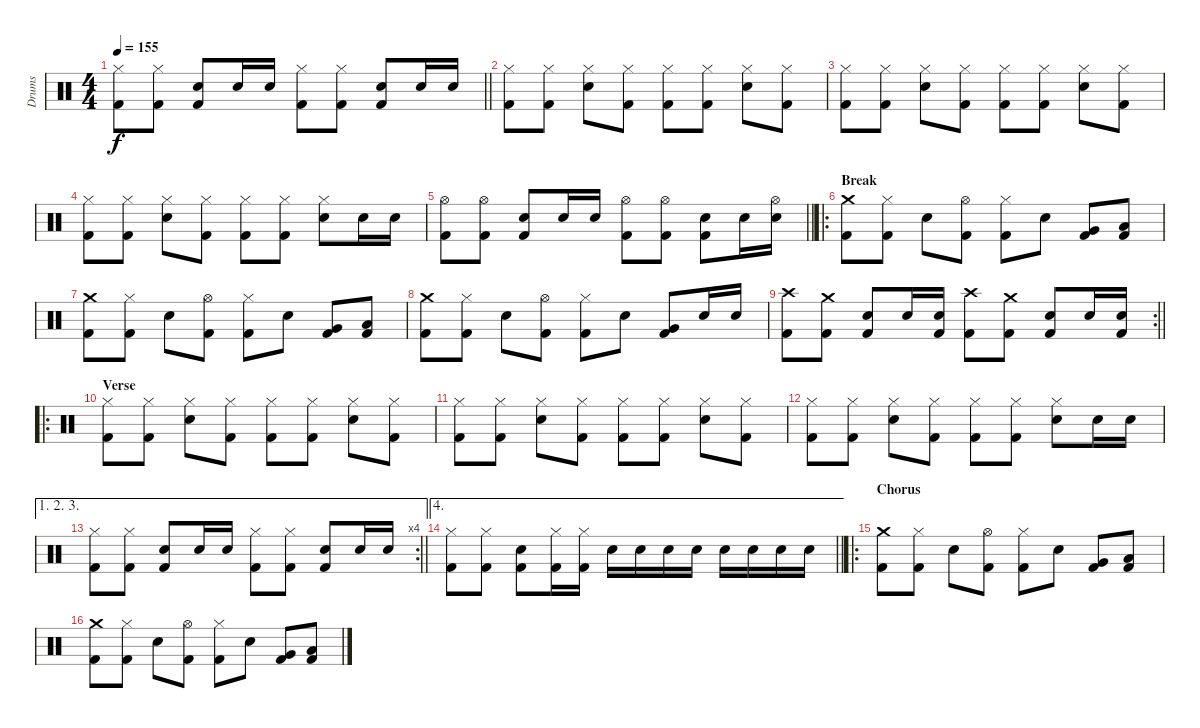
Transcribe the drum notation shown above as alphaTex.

\track ("Drums" "Drums") {instrument percussion}
\staff {score}
\articulation defaults
\ts (4 4)
\tempo 155
\clef neutral
\barLineRight lightlight
\ks c
("Hi-Hat (closed)" "Kick (hit) 2").8{dy f} ("Hi-Hat (closed)" "Kick (hit) 2").8 ("Snare (hit) 2" "Kick (hit) 2").8 "Snare (hit) 2".16 "Snare (hit) 2".16 ("Hi-Hat (closed)" "Kick (hit) 2").8 ("Hi-Hat (closed)" "Kick (hit) 2").8 ("Snare (hit) 2" "Kick (hit) 2").8 "Snare (hit) 2".16 "Snare (hit) 2".16 |
("Hi-Hat (closed)" "Kick (hit) 2").8 ("Hi-Hat (closed)" "Kick (hit) 2").8 ("Hi-Hat (closed)" "Snare (hit) 2").8 ("Hi-Hat (closed)" "Kick (hit) 2").8 ("Hi-Hat (closed)" "Kick (hit) 2").8 ("Hi-Hat (closed)" "Kick (hit) 2").8 ("Hi-Hat (closed)" "Snare (hit) 2").8 ("Hi-Hat (closed)" "Kick (hit) 2").8 |
("Hi-Hat (closed)" "Kick (hit) 2").8 ("Hi-Hat (closed)" "Kick (hit) 2").8 ("Hi-Hat (closed)" "Snare (hit) 2").8 ("Hi-Hat (closed)" "Kick (hit) 2").8 ("Hi-Hat (closed)" "Kick (hit) 2").8 ("Hi-Hat (closed)" "Kick (hit) 2").8 ("Hi-Hat (closed)" "Snare (hit) 2").8 ("Hi-Hat (closed)" "Kick (hit) 2").8 |
("Hi-Hat (closed)" "Kick (hit) 2").8 ("Hi-Hat (closed)" "Kick (hit) 2").8 ("Hi-Hat (closed)" "Snare (hit) 2").8 ("Hi-Hat (closed)" "Kick (hit) 2").8 ("Hi-Hat (closed)" "Kick (hit) 2").8 ("Hi-Hat (closed)" "Kick (hit) 2").8 ("Hi-Hat (closed)" "Snare (hit) 2").8 "Snare (hit) 2".16 "Snare (hit) 2".16 |
\barLineRight lightlight
("Hi-Hat (open)" "Kick (hit) 2").8 ("Hi-Hat (open)" "Kick (hit) 2").8 ("Snare (hit) 2" "Kick (hit) 2").8 "Snare (hit) 2".16 "Snare (hit) 2".16 ("Hi-Hat (open)" "Kick (hit) 2").8 ("Hi-Hat (open)" "Kick (hit) 2").8 ("Snare (hit) 2" "Kick (hit) 2").8 "Snare (hit) 2".16 ("Hi-Hat (open)" "Snare (hit) 2").16 |
\ro
\section ("" "Break")
("Crash medium (hit)" "Kick (hit) 2").8 ("Hi-Hat (closed)" "Kick (hit) 2").8 "Snare (hit) 2".8 ("Hi-Hat (open)" "Kick (hit) 2").8 ("Hi-Hat (closed)" "Kick (hit) 2").8 "Snare (hit) 2".8 ("Very Low Tom (hit)" "Kick (hit) 2").8 ("Low Floor Tom (hit)" "Kick (hit) 2").8 |
("Crash medium (hit)" "Kick (hit) 2").8 ("Hi-Hat (closed)" "Kick (hit) 2").8 "Snare (hit) 2".8 ("Hi-Hat (open)" "Kick (hit) 2").8 ("Hi-Hat (closed)" "Kick (hit) 2").8 "Snare (hit) 2".8 ("Very Low Tom (hit)" "Kick (hit) 2").8 ("Low Floor Tom (hit)" "Kick (hit) 2").8 |
("Crash medium (hit)" "Kick (hit) 2").8 ("Hi-Hat (closed)" "Kick (hit) 2").8 "Snare (hit) 2".8 ("Hi-Hat (open)" "Kick (hit) 2").8 ("Hi-Hat (closed)" "Kick (hit) 2").8 "Snare (hit) 2".8 ("Very Low Tom (hit)" "Kick (hit) 2").8 "Snare (hit) 2".16 "Snare (hit) 2".16 |
\rc 2
\barLineRight lightlight
("Crash high (hit)" "Kick (hit) 2").8 ("Crash medium (hit)" "Kick (hit) 2").8 ("Snare (hit) 2" "Kick (hit) 2").8 "Snare (hit) 2".16 ("Snare (hit) 2" "Kick (hit) 2").16 ("Crash high (hit)" "Kick (hit) 2").8 ("Crash medium (hit)" "Kick (hit) 2").8 ("Snare (hit) 2" "Kick (hit) 2").8 "Snare (hit) 2".16 ("Snare (hit) 2" "Kick (hit) 2").16 |
\ro
\section ("" "Verse")
("Hi-Hat (closed)" "Kick (hit) 2").8 ("Hi-Hat (closed)" "Kick (hit) 2").8 ("Hi-Hat (closed)" "Snare (hit) 2").8 ("Hi-Hat (closed)" "Kick (hit) 2").8 ("Hi-Hat (closed)" "Kick (hit) 2").8 ("Hi-Hat (closed)" "Kick (hit) 2").8 ("Hi-Hat (closed)" "Snare (hit) 2").8 ("Hi-Hat (closed)" "Kick (hit) 2").8 |
("Hi-Hat (closed)" "Kick (hit) 2").8 ("Hi-Hat (closed)" "Kick (hit) 2").8 ("Hi-Hat (closed)" "Snare (hit) 2").8 ("Hi-Hat (closed)" "Kick (hit) 2").8 ("Hi-Hat (closed)" "Kick (hit) 2").8 ("Hi-Hat (closed)" "Kick (hit) 2").8 ("Hi-Hat (closed)" "Snare (hit) 2").8 ("Hi-Hat (closed)" "Kick (hit) 2").8 |
("Hi-Hat (closed)" "Kick (hit) 2").8 ("Hi-Hat (closed)" "Kick (hit) 2").8 ("Hi-Hat (closed)" "Snare (hit) 2").8 ("Hi-Hat (closed)" "Kick (hit) 2").8 ("Hi-Hat (closed)" "Kick (hit) 2").8 ("Hi-Hat (closed)" "Kick (hit) 2").8 ("Hi-Hat (closed)" "Snare (hit) 2").8 "Snare (hit) 2".16 "Snare (hit) 2".16 |
\ae (1 2 3)
\rc 4
\barLineRight lightlight
("Hi-Hat (closed)" "Kick (hit) 2").8 ("Hi-Hat (closed)" "Kick (hit) 2").8 ("Snare (hit) 2" "Kick (hit) 2").8 "Snare (hit) 2".16 "Snare (hit) 2".16 ("Hi-Hat (closed)" "Kick (hit) 2").8 ("Hi-Hat (closed)" "Kick (hit) 2").8 ("Snare (hit) 2" "Kick (hit) 2").8 "Snare (hit) 2".16 "Snare (hit) 2".16 |
\ae 4
\barLineRight lightlight
("Hi-Hat (closed)" "Kick (hit) 2").8 ("Hi-Hat (closed)" "Kick (hit) 2").8 ("Snare (hit) 2" "Kick (hit) 2").8 ("Hi-Hat (closed)" "Kick (hit) 2").16 ("Hi-Hat (closed)" "Kick (hit) 2").16 "Snare (hit) 2".16 "Snare (hit) 2".16 "Snare (hit) 2".16 "Snare (hit) 2".16 "Snare (hit) 2".16 "Snare (hit) 2".16 "Snare (hit) 2".16 "Snare (hit) 2".16 |
\ro
\section ("" "Chorus")
("Crash medium (hit)" "Kick (hit) 2").8 ("Hi-Hat (closed)" "Kick (hit) 2").8 "Snare (hit) 2".8 ("Hi-Hat (open)" "Kick (hit) 2").8 ("Hi-Hat (closed)" "Kick (hit) 2").8 "Snare (hit) 2".8 ("Very Low Tom (hit)" "Kick (hit) 2").8 ("Low Floor Tom (hit)" "Kick (hit) 2").8 |
("Crash medium (hit)" "Kick (hit) 2").8 ("Hi-Hat (closed)" "Kick (hit) 2").8 "Snare (hit) 2".8 ("Hi-Hat (open)" "Kick (hit) 2").8 ("Hi-Hat (closed)" "Kick (hit) 2").8 "Snare (hit) 2".8 ("Very Low Tom (hit)" "Kick (hit) 2").8 ("Low Floor Tom (hit)" "Kick (hit) 2").8
